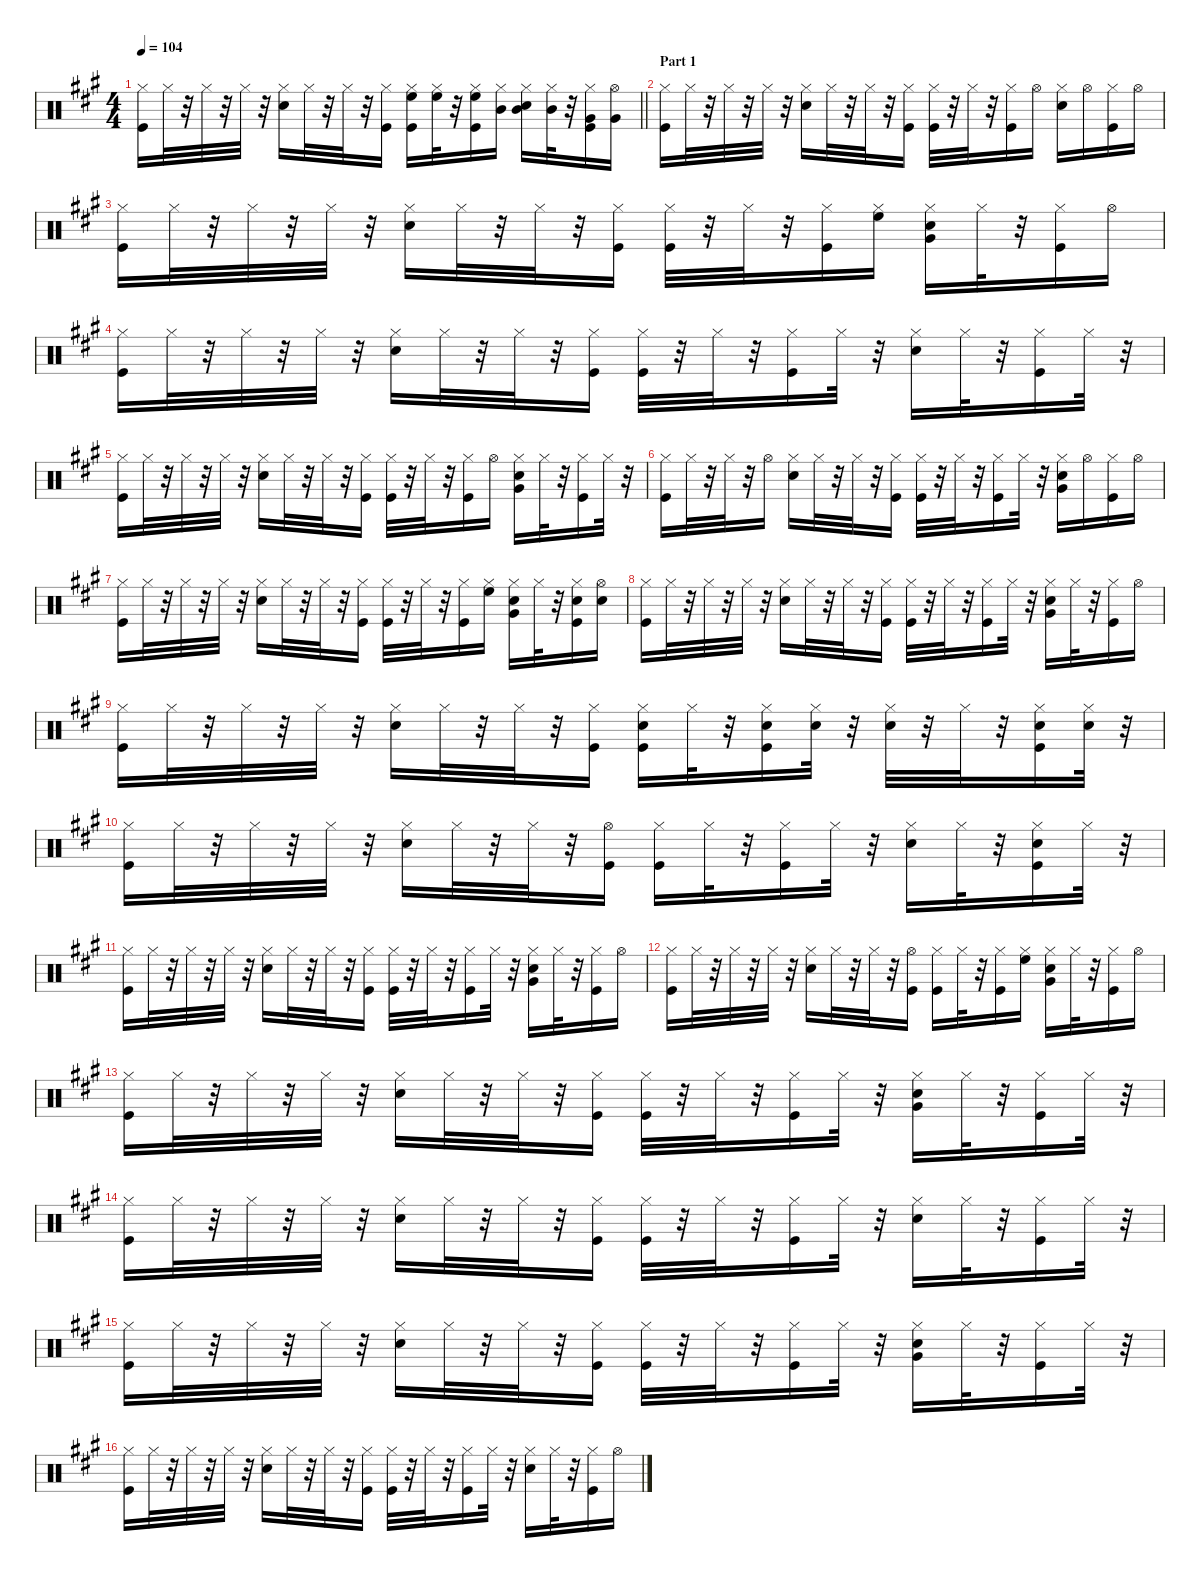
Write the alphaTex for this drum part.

\defaultSystemsLayout 4
\hideDynamics
\bracketExtendMode nobrackets
\singleTrackTrackNamePolicy hidden
\multiTrackTrackNamePolicy hidden
\otherSystemsTrackNameOrientation horizontal
\track ("Drums   " "drm.") {instrument percussion}
\staff {score}
\articulation defaults
\ts (4 4)
\tempo 104
\clef neutral
\barLineRight lightlight
\ks a
("Kick (hit)"{acc forcenatural} "Hi-Hat (closed)"{acc forcenatural}).16{dy f beam Down} "Hi-Hat (closed)"{acc forcenatural}.32{dy mp beam Down} r.32{beam Down} "Hi-Hat (closed)"{acc forcenatural}.32{dy f beam Down} r.32{beam Down} "Hi-Hat (closed)"{acc forcenatural}.32{beam Down} r.32{beam Down} ("Snare (hit) 2"{acc forcenatural} "Hi-Hat (closed)"{acc forcenatural}).16{dy fff beam Down} "Hi-Hat (closed)"{acc forcenatural}.32{dy mp beam Down} r.32{beam Down} "Hi-Hat (closed)"{acc forcenatural}.32{dy f beam Down} r.32{beam Down} ("Kick (hit)"{acc forcenatural} "Hi-Hat (closed)"{acc forcenatural}).16{dy mf beam Down} ("Kick (hit)"{acc forcenatural} "Hi-Hat (closed)"{acc forcenatural} "High Floor Tom (hit)"{acc forcenatural}).16{dy f beam Down} ("Hi-Hat (closed)"{acc forcenatural} "High Floor Tom (hit)"{acc forcenatural}).32{dy mp beam Down} r.32{beam Down} ("Kick (hit)"{acc forcenatural} "Hi-Hat (closed)"{acc forcenatural} "High Floor Tom (hit)"{acc forcenatural}).16{dy f beam Down} ("Hi-Hat (closed)"{acc forcenatural} "Mid Tom (hit)"{acc forcenatural}).16{beam Down} ("Snare (hit) 2"{acc forcenatural} "Hi-Hat (closed)"{acc forcenatural} "Mid Tom (hit)"{acc forcenatural}).16{dy fff beam Down} ("Hi-Hat (closed)"{acc forcenatural} "Mid Tom (hit)"{acc forcenatural}).32{dy mp beam Down} r.32{beam Down} ("Kick (hit)"{acc forcenatural} "Hi-Hat (closed)"{acc forcenatural} "Very Low Tom (hit)"{acc forcenatural}).16{dy f beam Down} ("Very Low Tom (hit)"{acc forcenatural} "Hi-Hat (open)"{acc forcenatural}).16{beam Down} |
\section ("" "Part 1")
("Kick (hit)"{acc forcenatural} "Hi-Hat (closed)"{acc forcenatural}).16{beam Down} "Hi-Hat (closed)"{acc forcenatural}.32{dy mp beam Down} r.32{beam Down} "Hi-Hat (closed)"{acc forcenatural}.32{dy f beam Down} r.32{beam Down} "Hi-Hat (closed)"{acc forcenatural}.32{beam Down} r.32{beam Down} ("Snare (hit) 2"{acc forcenatural} "Hi-Hat (closed)"{acc forcenatural}).16{dy fff beam Down} "Hi-Hat (closed)"{acc forcenatural}.32{dy mp beam Down} r.32{beam Down} "Hi-Hat (closed)"{acc forcenatural}.32{dy f beam Down} r.32{beam Down} ("Kick (hit)"{acc forcenatural} "Hi-Hat (closed)"{acc forcenatural}).16{dy mf beam Down} ("Kick (hit)"{acc forcenatural} "Hi-Hat (closed)"{acc forcenatural}).32{dy f beam Down} r.32{beam Down} "Hi-Hat (closed)"{acc forcenatural}.32{dy mp beam Down} r.32{beam Down} ("Kick (hit)"{acc forcenatural} "Hi-Hat (closed)"{acc forcenatural}).16{dy f beam Down} "Hi-Hat (open)"{acc forcenatural}.16{beam Down} ("Snare (hit) 2"{acc forcenatural} "Hi-Hat (closed)"{acc forcenatural}).16{dy fff beam Down} "Hi-Hat (open)"{acc forcenatural}.16{dy mp beam Down} ("Kick (hit)"{acc forcenatural} "Hi-Hat (closed)"{acc forcenatural}).16{dy f beam Down} "Hi-Hat (open)"{acc forcenatural}.16{beam Down} |
("Kick (hit)"{acc forcenatural} "Hi-Hat (closed)"{acc forcenatural}).16{beam Down} "Hi-Hat (closed)"{acc forcenatural}.32{dy mp beam Down} r.32{beam Down} "Hi-Hat (closed)"{acc forcenatural}.32{dy f beam Down} r.32{beam Down} "Hi-Hat (closed)"{acc forcenatural}.32{beam Down} r.32{beam Down} ("Snare (hit) 2"{acc forcenatural} "Hi-Hat (closed)"{acc forcenatural}).16{dy fff beam Down} "Hi-Hat (closed)"{acc forcenatural}.32{dy mp beam Down} r.32{beam Down} "Hi-Hat (closed)"{acc forcenatural}.32{dy f beam Down} r.32{beam Down} ("Kick (hit)"{acc forcenatural} "Hi-Hat (closed)"{acc forcenatural}).16{dy mf beam Down} ("Kick (hit)"{acc forcenatural} "Hi-Hat (closed)"{acc forcenatural}).32{dy f beam Down} r.32{beam Down} "Hi-Hat (closed)"{acc forcenatural}.32{dy mp beam Down} r.32{beam Down} ("Kick (hit)"{acc forcenatural} "Hi-Hat (closed)"{acc forcenatural}).16{dy f beam Down} ("Hi-Hat (closed)"{acc forcenatural} "High Floor Tom (hit)"{acc forcenatural}).16{beam Down} ("Snare (hit) 2"{acc forcenatural} "Hi-Hat (closed)"{acc forcenatural} "Very Low Tom (hit)"{acc forcenatural}).16{dy fff beam Down} "Hi-Hat (closed)"{acc forcenatural}.32{dy mp beam Down} r.32{beam Down} ("Kick (hit)"{acc forcenatural} "Hi-Hat (closed)"{acc forcenatural}).16{dy f beam Down} "Hi-Hat (open)"{acc forcenatural}.16{beam Down} |
("Kick (hit)"{acc forcenatural} "Hi-Hat (closed)"{acc forcenatural}).16{beam Down} "Hi-Hat (closed)"{acc forcenatural}.32{dy mp beam Down} r.32{beam Down} "Hi-Hat (closed)"{acc forcenatural}.32{dy f beam Down} r.32{beam Down} "Hi-Hat (closed)"{acc forcenatural}.32{beam Down} r.32{beam Down} ("Snare (hit) 2"{acc forcenatural} "Hi-Hat (closed)"{acc forcenatural}).16{dy fff beam Down} "Hi-Hat (closed)"{acc forcenatural}.32{dy mp beam Down} r.32{beam Down} "Hi-Hat (closed)"{acc forcenatural}.32{dy f beam Down} r.32{beam Down} ("Kick (hit)"{acc forcenatural} "Hi-Hat (closed)"{acc forcenatural}).16{dy mf beam Down} ("Kick (hit)"{acc forcenatural} "Hi-Hat (closed)"{acc forcenatural}).32{dy f beam Down} r.32{beam Down} "Hi-Hat (closed)"{acc forcenatural}.32{dy mp beam Down} r.32{beam Down} ("Kick (hit)"{acc forcenatural} "Hi-Hat (closed)"{acc forcenatural}).16{dy f beam Down} "Hi-Hat (closed)"{acc forcenatural}.32{beam Down} r.32{beam Down} ("Snare (hit) 2"{acc forcenatural} "Hi-Hat (closed)"{acc forcenatural}).16{dy fff beam Down} "Hi-Hat (closed)"{acc forcenatural}.32{dy mp beam Down} r.32{beam Down} ("Kick (hit)"{acc forcenatural} "Hi-Hat (closed)"{acc forcenatural}).16{dy f beam Down} "Hi-Hat (closed)"{acc forcenatural}.32{beam Down} r.32{beam Down} |
("Kick (hit)"{acc forcenatural} "Hi-Hat (closed)"{acc forcenatural}).16{beam Down} "Hi-Hat (closed)"{acc forcenatural}.32{dy mp beam Down} r.32{beam Down} "Hi-Hat (closed)"{acc forcenatural}.32{dy f beam Down} r.32{beam Down} "Hi-Hat (closed)"{acc forcenatural}.32{beam Down} r.32{beam Down} ("Snare (hit) 2"{acc forcenatural} "Hi-Hat (closed)"{acc forcenatural}).16{dy fff beam Down} "Hi-Hat (closed)"{acc forcenatural}.32{dy mp beam Down} r.32{beam Down} "Hi-Hat (closed)"{acc forcenatural}.32{dy f beam Down} r.32{beam Down} ("Kick (hit)"{acc forcenatural} "Hi-Hat (closed)"{acc forcenatural}).16{dy mf beam Down} ("Kick (hit)"{acc forcenatural} "Hi-Hat (closed)"{acc forcenatural}).32{dy f beam Down} r.32{beam Down} "Hi-Hat (closed)"{acc forcenatural}.32{dy mp beam Down} r.32{beam Down} ("Kick (hit)"{acc forcenatural} "Hi-Hat (closed)"{acc forcenatural}).16{dy f beam Down} "Hi-Hat (open)"{acc forcenatural}.16{beam Down} ("Snare (hit) 2"{acc forcenatural} "Hi-Hat (closed)"{acc forcenatural} "Very Low Tom (hit)"{acc forcenatural}).16{dy fff beam Down} "Hi-Hat (closed)"{acc forcenatural}.32{dy mp beam Down} r.32{beam Down} ("Kick (hit)"{acc forcenatural} "Hi-Hat (closed)"{acc forcenatural}).16{dy f beam Down} "Hi-Hat (closed)"{acc forcenatural}.32{beam Down} r.32{beam Down} |
("Kick (hit)"{acc forcenatural} "Hi-Hat (closed)"{acc forcenatural}).16{beam Down} "Hi-Hat (closed)"{acc forcenatural}.32{dy mp beam Down} r.32{beam Down} "Hi-Hat (closed)"{acc forcenatural}.32{dy f beam Down} r.32{beam Down} "Hi-Hat (open)"{acc forcenatural}.16{beam Down} ("Snare (hit) 2"{acc forcenatural} "Hi-Hat (closed)"{acc forcenatural}).16{dy fff beam Down} "Hi-Hat (closed)"{acc forcenatural}.32{dy mp beam Down} r.32{beam Down} "Hi-Hat (closed)"{acc forcenatural}.32{dy f beam Down} r.32{beam Down} ("Kick (hit)"{acc forcenatural} "Hi-Hat (closed)"{acc forcenatural}).16{dy mf beam Down} ("Kick (hit)"{acc forcenatural} "Hi-Hat (closed)"{acc forcenatural}).32{dy f beam Down} r.32{beam Down} "Hi-Hat (closed)"{acc forcenatural}.32{dy mp beam Down} r.32{beam Down} ("Kick (hit)"{acc forcenatural} "Hi-Hat (closed)"{acc forcenatural}).16{dy f beam Down} "Hi-Hat (closed)"{acc forcenatural}.32{beam Down} r.32{beam Down} ("Snare (hit) 2"{acc forcenatural} "Hi-Hat (closed)"{acc forcenatural} "Very Low Tom (hit)"{acc forcenatural}).16{dy fff beam Down} "Hi-Hat (open)"{acc forcenatural}.16{dy mp beam Down} ("Kick (hit)"{acc forcenatural} "Hi-Hat (closed)"{acc forcenatural}).16{dy f beam Down} "Hi-Hat (open)"{acc forcenatural}.16{beam Down} |
("Kick (hit)"{acc forcenatural} "Hi-Hat (closed)"{acc forcenatural}).16{beam Down} "Hi-Hat (closed)"{acc forcenatural}.32{dy mp beam Down} r.32{beam Down} "Hi-Hat (closed)"{acc forcenatural}.32{dy f beam Down} r.32{beam Down} "Hi-Hat (closed)"{acc forcenatural}.32{beam Down} r.32{beam Down} ("Snare (hit) 2"{acc forcenatural} "Hi-Hat (closed)"{acc forcenatural}).16{dy fff beam Down} "Hi-Hat (closed)"{acc forcenatural}.32{dy mp beam Down} r.32{beam Down} "Hi-Hat (closed)"{acc forcenatural}.32{dy f beam Down} r.32{beam Down} ("Kick (hit)"{acc forcenatural} "Hi-Hat (closed)"{acc forcenatural}).16{dy mf beam Down} ("Kick (hit)"{acc forcenatural} "Hi-Hat (closed)"{acc forcenatural}).32{dy f beam Down} r.32{beam Down} "Hi-Hat (closed)"{acc forcenatural}.32{dy mp beam Down} r.32{beam Down} ("Kick (hit)"{acc forcenatural} "Hi-Hat (closed)"{acc forcenatural}).16{dy f beam Down} ("Hi-Hat (closed)"{acc forcenatural} "High Floor Tom (hit)"{acc forcenatural}).16{beam Down} ("Snare (hit) 2"{acc forcenatural} "Hi-Hat (closed)"{acc forcenatural} "Very Low Tom (hit)"{acc forcenatural}).16{dy fff beam Down} "Hi-Hat (closed)"{acc forcenatural}.32{dy mp beam Down} r.32{beam Down} ("Kick (hit)"{acc forcenatural} "Snare (hit) 2"{acc forcenatural} "Hi-Hat (closed)"{acc forcenatural}).16{dy f beam Down} ("Snare (hit) 2"{acc forcenatural} "Hi-Hat (open)"{acc forcenatural}).16{beam Down} |
("Kick (hit)"{acc forcenatural} "Hi-Hat (closed)"{acc forcenatural}).16{beam Down} "Hi-Hat (closed)"{acc forcenatural}.32{dy mp beam Down} r.32{beam Down} "Hi-Hat (closed)"{acc forcenatural}.32{dy f beam Down} r.32{beam Down} "Hi-Hat (closed)"{acc forcenatural}.32{beam Down} r.32{beam Down} ("Snare (hit) 2"{acc forcenatural} "Hi-Hat (closed)"{acc forcenatural}).16{dy fff beam Down} "Hi-Hat (closed)"{acc forcenatural}.32{dy mp beam Down} r.32{beam Down} "Hi-Hat (closed)"{acc forcenatural}.32{dy f beam Down} r.32{beam Down} ("Kick (hit)"{acc forcenatural} "Hi-Hat (closed)"{acc forcenatural}).16{dy mf beam Down} ("Kick (hit)"{acc forcenatural} "Hi-Hat (closed)"{acc forcenatural}).32{dy f beam Down} r.32{beam Down} "Hi-Hat (closed)"{acc forcenatural}.32{dy mp beam Down} r.32{beam Down} ("Kick (hit)"{acc forcenatural} "Hi-Hat (closed)"{acc forcenatural}).16{dy f beam Down} "Hi-Hat (closed)"{acc forcenatural}.32{beam Down} r.32{beam Down} ("Snare (hit) 2"{acc forcenatural} "Hi-Hat (closed)"{acc forcenatural} "Very Low Tom (hit)"{acc forcenatural}).16{dy fff beam Down} "Hi-Hat (closed)"{acc forcenatural}.32{dy mp beam Down} r.32{beam Down} ("Kick (hit)"{acc forcenatural} "Hi-Hat (closed)"{acc forcenatural}).16{dy f beam Down} "Hi-Hat (open)"{acc forcenatural}.16{beam Down} |
("Kick (hit)"{acc forcenatural} "Hi-Hat (closed)"{acc forcenatural}).16{beam Down} "Hi-Hat (closed)"{acc forcenatural}.32{dy mp beam Down} r.32{beam Down} "Hi-Hat (closed)"{acc forcenatural}.32{dy f beam Down} r.32{beam Down} "Hi-Hat (closed)"{acc forcenatural}.32{beam Down} r.32{beam Down} ("Snare (hit) 2"{acc forcenatural} "Hi-Hat (closed)"{acc forcenatural}).16{dy fff beam Down} "Hi-Hat (closed)"{acc forcenatural}.32{dy mp beam Down} r.32{beam Down} "Hi-Hat (closed)"{acc forcenatural}.32{dy f beam Down} r.32{beam Down} ("Kick (hit)"{acc forcenatural} "Hi-Hat (closed)"{acc forcenatural}).16{dy mf beam Down} ("Kick (hit)"{acc forcenatural} "Snare (hit) 2"{acc forcenatural} "Hi-Hat (closed)"{acc forcenatural}).16{dy f beam Down} "Hi-Hat (closed)"{acc forcenatural}.32{dy mp beam Down} r.32{beam Down} ("Kick (hit)"{acc forcenatural} "Snare (hit) 2"{acc forcenatural} "Hi-Hat (closed)"{acc forcenatural}).16{dy f beam Down} ("Snare (hit) 2"{acc forcenatural} "Hi-Hat (closed)"{acc forcenatural}).32{beam Down} r.32{beam Down} ("Snare (hit) 2"{acc forcenatural} "Hi-Hat (closed)"{acc forcenatural}).32{dy fff beam Down} r.32{beam Down} "Hi-Hat (closed)"{acc forcenatural}.32{dy mp beam Down} r.32{beam Down} ("Kick (hit)"{acc forcenatural} "Snare (hit) 2"{acc forcenatural} "Hi-Hat (closed)"{acc forcenatural}).16{dy f beam Down} ("Snare (hit) 2"{acc forcenatural} "Hi-Hat (closed)"{acc forcenatural}).32{dy ff beam Down} r.32{beam Down} |
("Kick (hit)"{acc forcenatural} "Hi-Hat (closed)"{acc forcenatural}).16{dy f beam Down} "Hi-Hat (closed)"{acc forcenatural}.32{dy mp beam Down} r.32{beam Down} "Hi-Hat (closed)"{acc forcenatural}.32{dy f beam Down} r.32{beam Down} "Hi-Hat (closed)"{acc forcenatural}.32{beam Down} r.32{beam Down} ("Snare (hit) 2"{acc forcenatural} "Hi-Hat (closed)"{acc forcenatural}).16{dy fff beam Down} "Hi-Hat (closed)"{acc forcenatural}.32{dy mp beam Down} r.32{beam Down} "Hi-Hat (closed)"{acc forcenatural}.32{dy f beam Down} r.32{beam Down} ("Kick (hit)"{acc forcenatural} "Hi-Hat (open)"{acc forcenatural}).16{dy mf beam Down} ("Kick (hit)"{acc forcenatural} "Hi-Hat (closed)"{acc forcenatural}).16{dy f beam Down} "Hi-Hat (closed)"{acc forcenatural}.32{dy mp beam Down} r.32{beam Down} ("Kick (hit)"{acc forcenatural} "Hi-Hat (closed)"{acc forcenatural}).16{dy f beam Down} "Hi-Hat (closed)"{acc forcenatural}.32{beam Down} r.32{beam Down} ("Snare (hit) 2"{acc forcenatural} "Hi-Hat (closed)"{acc forcenatural}).16{dy fff beam Down} "Hi-Hat (closed)"{acc forcenatural}.32{dy mp beam Down} r.32{beam Down} ("Kick (hit)"{acc forcenatural} "Snare (hit) 2"{acc forcenatural} "Hi-Hat (closed)"{acc forcenatural}).16{dy f beam Down} "Hi-Hat (closed)"{acc forcenatural}.32{beam Down} r.32{beam Down} |
("Kick (hit)"{acc forcenatural} "Hi-Hat (closed)"{acc forcenatural}).16{beam Down} "Hi-Hat (closed)"{acc forcenatural}.32{dy mp beam Down} r.32{beam Down} "Hi-Hat (closed)"{acc forcenatural}.32{dy f beam Down} r.32{beam Down} "Hi-Hat (closed)"{acc forcenatural}.32{beam Down} r.32{beam Down} ("Snare (hit) 2"{acc forcenatural} "Hi-Hat (closed)"{acc forcenatural}).16{dy fff beam Down} "Hi-Hat (closed)"{acc forcenatural}.32{dy mp beam Down} r.32{beam Down} "Hi-Hat (closed)"{acc forcenatural}.32{dy f beam Down} r.32{beam Down} ("Kick (hit)"{acc forcenatural} "Hi-Hat (closed)"{acc forcenatural}).16{dy mf beam Down} ("Kick (hit)"{acc forcenatural} "Hi-Hat (closed)"{acc forcenatural}).32{dy f beam Down} r.32{beam Down} "Hi-Hat (closed)"{acc forcenatural}.32{dy mp beam Down} r.32{beam Down} ("Kick (hit)"{acc forcenatural} "Hi-Hat (closed)"{acc forcenatural}).16{dy f beam Down} "Hi-Hat (closed)"{acc forcenatural}.32{beam Down} r.32{beam Down} ("Snare (hit) 2"{acc forcenatural} "Hi-Hat (closed)"{acc forcenatural} "Very Low Tom (hit)"{acc forcenatural}).16{dy fff beam Down} "Hi-Hat (closed)"{acc forcenatural}.32{dy mp beam Down} r.32{beam Down} ("Kick (hit)"{acc forcenatural} "Hi-Hat (closed)"{acc forcenatural}).16{dy f beam Down} "Hi-Hat (open)"{acc forcenatural}.16{beam Down} |
("Kick (hit)"{acc forcenatural} "Hi-Hat (closed)"{acc forcenatural}).16{beam Down} "Hi-Hat (closed)"{acc forcenatural}.32{dy mp beam Down} r.32{beam Down} "Hi-Hat (closed)"{acc forcenatural}.32{dy f beam Down} r.32{beam Down} "Hi-Hat (closed)"{acc forcenatural}.32{beam Down} r.32{beam Down} ("Snare (hit) 2"{acc forcenatural} "Hi-Hat (closed)"{acc forcenatural}).16{dy fff beam Down} "Hi-Hat (closed)"{acc forcenatural}.32{dy mp beam Down} r.32{beam Down} "Hi-Hat (closed)"{acc forcenatural}.32{dy f beam Down} r.32{beam Down} ("Kick (hit)"{acc forcenatural} "Hi-Hat (open)"{acc forcenatural}).16{dy mf beam Down} ("Kick (hit)"{acc forcenatural} "Hi-Hat (closed)"{acc forcenatural}).16{dy f beam Down} "Hi-Hat (closed)"{acc forcenatural}.32{dy mp beam Down} r.32{beam Down} ("Kick (hit)"{acc forcenatural} "Hi-Hat (closed)"{acc forcenatural}).16{dy f beam Down} ("Hi-Hat (closed)"{acc forcenatural} "High Floor Tom (hit)"{acc forcenatural}).16{beam Down} ("Snare (hit) 2"{acc forcenatural} "Hi-Hat (closed)"{acc forcenatural} "Very Low Tom (hit)"{acc forcenatural}).16{dy fff beam Down} "Hi-Hat (closed)"{acc forcenatural}.32{dy mp beam Down} r.32{beam Down} ("Kick (hit)"{acc forcenatural} "Hi-Hat (closed)"{acc forcenatural}).16{dy f beam Down} "Hi-Hat (open)"{acc forcenatural}.16{beam Down} |
("Kick (hit)"{acc forcenatural} "Hi-Hat (closed)"{acc forcenatural}).16{beam Down} "Hi-Hat (closed)"{acc forcenatural}.32{dy mp beam Down} r.32{beam Down} "Hi-Hat (closed)"{acc forcenatural}.32{dy f beam Down} r.32{beam Down} "Hi-Hat (closed)"{acc forcenatural}.32{beam Down} r.32{beam Down} ("Snare (hit) 2"{acc forcenatural} "Hi-Hat (closed)"{acc forcenatural}).16{dy fff beam Down} "Hi-Hat (closed)"{acc forcenatural}.32{dy mp beam Down} r.32{beam Down} "Hi-Hat (closed)"{acc forcenatural}.32{dy f beam Down} r.32{beam Down} ("Kick (hit)"{acc forcenatural} "Hi-Hat (closed)"{acc forcenatural}).16{dy mf beam Down} ("Kick (hit)"{acc forcenatural} "Hi-Hat (closed)"{acc forcenatural}).32{dy f beam Down} r.32{beam Down} "Hi-Hat (closed)"{acc forcenatural}.32{dy mp beam Down} r.32{beam Down} ("Kick (hit)"{acc forcenatural} "Hi-Hat (closed)"{acc forcenatural}).16{dy f beam Down} "Hi-Hat (closed)"{acc forcenatural}.32{beam Down} r.32{beam Down} ("Snare (hit) 2"{acc forcenatural} "Hi-Hat (closed)"{acc forcenatural} "Very Low Tom (hit)"{acc forcenatural}).16{dy fff beam Down} "Hi-Hat (closed)"{acc forcenatural}.32{dy mp beam Down} r.32{beam Down} ("Kick (hit)"{acc forcenatural} "Hi-Hat (closed)"{acc forcenatural}).16{dy f beam Down} "Hi-Hat (closed)"{acc forcenatural}.32{beam Down} r.32{beam Down} |
("Kick (hit)"{acc forcenatural} "Hi-Hat (closed)"{acc forcenatural}).16{beam Down} "Hi-Hat (closed)"{acc forcenatural}.32{dy mp beam Down} r.32{beam Down} "Hi-Hat (closed)"{acc forcenatural}.32{dy f beam Down} r.32{beam Down} "Hi-Hat (closed)"{acc forcenatural}.32{beam Down} r.32{beam Down} ("Snare (hit) 2"{acc forcenatural} "Hi-Hat (closed)"{acc forcenatural}).16{dy fff beam Down} "Hi-Hat (closed)"{acc forcenatural}.32{dy mp beam Down} r.32{beam Down} "Hi-Hat (closed)"{acc forcenatural}.32{dy f beam Down} r.32{beam Down} ("Kick (hit)"{acc forcenatural} "Hi-Hat (closed)"{acc forcenatural}).16{dy mf beam Down} ("Kick (hit)"{acc forcenatural} "Hi-Hat (closed)"{acc forcenatural}).32{dy f beam Down} r.32{beam Down} "Hi-Hat (closed)"{acc forcenatural}.32{dy mp beam Down} r.32{beam Down} ("Kick (hit)"{acc forcenatural} "Hi-Hat (closed)"{acc forcenatural}).16{dy f beam Down} "Hi-Hat (closed)"{acc forcenatural}.32{beam Down} r.32{beam Down} ("Snare (hit) 2"{acc forcenatural} "Hi-Hat (closed)"{acc forcenatural}).16{dy fff beam Down} "Hi-Hat (closed)"{acc forcenatural}.32{dy mp beam Down} r.32{beam Down} ("Kick (hit)"{acc forcenatural} "Hi-Hat (closed)"{acc forcenatural}).16{dy f beam Down} "Hi-Hat (closed)"{acc forcenatural}.32{beam Down} r.32{beam Down} |
("Kick (hit)"{acc forcenatural} "Hi-Hat (closed)"{acc forcenatural}).16{beam Down} "Hi-Hat (closed)"{acc forcenatural}.32{dy mp beam Down} r.32{beam Down} "Hi-Hat (closed)"{acc forcenatural}.32{dy f beam Down} r.32{beam Down} "Hi-Hat (closed)"{acc forcenatural}.32{beam Down} r.32{beam Down} ("Snare (hit) 2"{acc forcenatural} "Hi-Hat (closed)"{acc forcenatural}).16{dy fff beam Down} "Hi-Hat (closed)"{acc forcenatural}.32{dy mp beam Down} r.32{beam Down} "Hi-Hat (closed)"{acc forcenatural}.32{dy f beam Down} r.32{beam Down} ("Kick (hit)"{acc forcenatural} "Hi-Hat (closed)"{acc forcenatural}).16{dy mf beam Down} ("Kick (hit)"{acc forcenatural} "Hi-Hat (closed)"{acc forcenatural}).32{dy f beam Down} r.32{beam Down} "Hi-Hat (closed)"{acc forcenatural}.32{dy mp beam Down} r.32{beam Down} ("Kick (hit)"{acc forcenatural} "Hi-Hat (closed)"{acc forcenatural}).16{dy f beam Down} "Hi-Hat (closed)"{acc forcenatural}.32{beam Down} r.32{beam Down} ("Snare (hit) 2"{acc forcenatural} "Hi-Hat (closed)"{acc forcenatural} "Very Low Tom (hit)"{acc forcenatural}).16{dy fff beam Down} "Hi-Hat (closed)"{acc forcenatural}.32{dy mp beam Down} r.32{beam Down} ("Kick (hit)"{acc forcenatural} "Hi-Hat (closed)"{acc forcenatural}).16{dy f beam Down} "Hi-Hat (closed)"{acc forcenatural}.32{beam Down} r.32{beam Down} |
("Kick (hit)"{acc forcenatural} "Hi-Hat (closed)"{acc forcenatural}).16{beam Down} "Hi-Hat (closed)"{acc forcenatural}.32{dy mp beam Down} r.32{beam Down} "Hi-Hat (closed)"{acc forcenatural}.32{dy f beam Down} r.32{beam Down} "Hi-Hat (closed)"{acc forcenatural}.32{beam Down} r.32{beam Down} ("Snare (hit) 2"{acc forcenatural} "Hi-Hat (closed)"{acc forcenatural}).16{dy fff beam Down} "Hi-Hat (closed)"{acc forcenatural}.32{dy mp beam Down} r.32{beam Down} "Hi-Hat (closed)"{acc forcenatural}.32{dy f beam Down} r.32{beam Down} ("Kick (hit)"{acc forcenatural} "Hi-Hat (closed)"{acc forcenatural}).16{dy mf beam Down} ("Kick (hit)"{acc forcenatural} "Hi-Hat (closed)"{acc forcenatural}).32{dy f beam Down} r.32{beam Down} "Hi-Hat (closed)"{acc forcenatural}.32{dy mp beam Down} r.32{beam Down} ("Kick (hit)"{acc forcenatural} "Hi-Hat (closed)"{acc forcenatural}).16{dy f beam Down} "Hi-Hat (closed)"{acc forcenatural}.32{beam Down} r.32{beam Down} ("Snare (hit) 2"{acc forcenatural} "Hi-Hat (closed)"{acc forcenatural}).16{dy fff beam Down} "Hi-Hat (closed)"{acc forcenatural}.32{dy mp beam Down} r.32{beam Down} ("Kick (hit)"{acc forcenatural} "Hi-Hat (closed)"{acc forcenatural}).16{dy f beam Down} "Hi-Hat (open)"{acc forcenatural}.16{beam Down}
